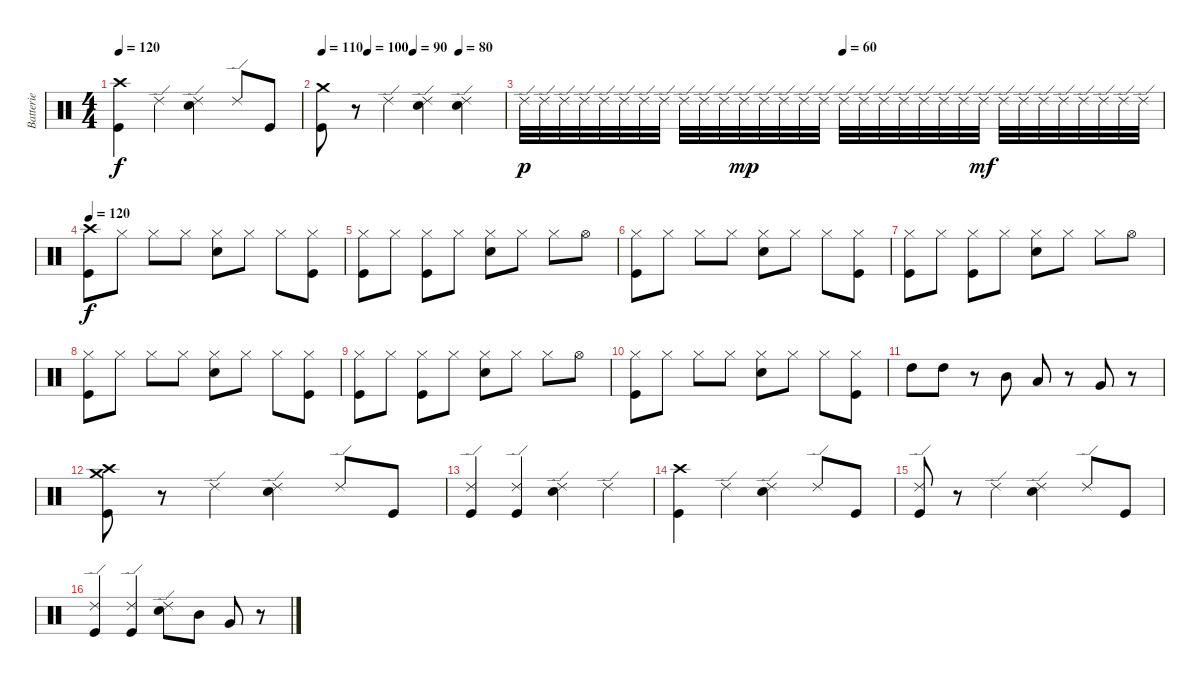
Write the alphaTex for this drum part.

\track ("Batterie" "Batterie") {instrument percussion}
\staff {score}
\articulation defaults
\ts (4 4)
\tempo 120
\clef neutral
\ks c
("Crash high (hit)" "Kick (hit)").4{dy f} "Ride (edge) 2".4 ("Ride (edge) 2" "Snare (hit) 2").4 "Ride (edge) 2".8 "Kick (hit)".8 |
\tempo 110
\tempo (100 0.25)
\tempo (90 0.5)
\tempo (80 0.75)
("Crash medium (hit)" "Kick (hit)").8 r.8 "Ride (edge) 2".4 ("Snare (hit) 2" "Ride (edge) 2").4 ("Snare (hit) 2" "Ride (edge) 2").4 |
\tempo (60 0.5)
"Ride (edge) 2".32{dy p} "Ride (edge) 2".32 "Ride (edge) 2".32 "Ride (edge) 2".32 "Ride (edge) 2".32 "Ride (edge) 2".32 "Ride (edge) 2".32 "Ride (edge) 2".32 "Ride (edge) 2".32 "Ride (edge) 2".32 "Ride (edge) 2".32 "Ride (edge) 2".32{dy mp} "Ride (edge) 2".32 "Ride (edge) 2".32 "Ride (edge) 2".32 "Ride (edge) 2".32 "Ride (edge) 2".32 "Ride (edge) 2".32 "Ride (edge) 2".32 "Ride (edge) 2".32 "Ride (edge) 2".32 "Ride (edge) 2".32 "Ride (edge) 2".32 "Ride (edge) 2".32{dy mf} "Ride (edge) 2".32 "Ride (edge) 2".32 "Ride (edge) 2".32 "Ride (edge) 2".32 "Ride (edge) 2".32 "Ride (edge) 2".32 "Ride (edge) 2".32 "Ride (edge) 2".32 |
\tempo 120
("Crash high (hit)" "Kick (hit)").8{dy f} "Hi-Hat (closed)".8 "Hi-Hat (closed)".8 "Hi-Hat (closed)".8 ("Snare (hit) 2" "Hi-Hat (closed)").8 "Hi-Hat (closed)".8 "Hi-Hat (closed)".8 ("Kick (hit)" "Hi-Hat (closed)").8 |
("Hi-Hat (closed)" "Kick (hit)").8 "Hi-Hat (closed)".8 ("Kick (hit)" "Hi-Hat (closed)").8 "Hi-Hat (closed)".8 ("Snare (hit) 2" "Hi-Hat (closed)").8 "Hi-Hat (closed)".8 "Hi-Hat (closed)".8 "Hi-Hat (open)".8 |
("Kick (hit)" "Hi-Hat (closed)").8 "Hi-Hat (closed)".8 "Hi-Hat (closed)".8 "Hi-Hat (closed)".8 ("Snare (hit) 2" "Hi-Hat (closed)").8 "Hi-Hat (closed)".8 "Hi-Hat (closed)".8 ("Kick (hit)" "Hi-Hat (closed)").8 |
("Kick (hit)" "Hi-Hat (closed)").8 "Hi-Hat (closed)".8 ("Kick (hit)" "Hi-Hat (closed)").8 "Hi-Hat (closed)".8 ("Snare (hit) 2" "Hi-Hat (closed)").8 "Hi-Hat (closed)".8 "Hi-Hat (closed)".8 "Hi-Hat (open)".8 |
("Kick (hit)" "Hi-Hat (closed)").8 "Hi-Hat (closed)".8 "Hi-Hat (closed)".8 "Hi-Hat (closed)".8 ("Snare (hit) 2" "Hi-Hat (closed)").8 "Hi-Hat (closed)".8 "Hi-Hat (closed)".8 ("Kick (hit)" "Hi-Hat (closed)").8 |
("Kick (hit)" "Hi-Hat (closed)").8 "Hi-Hat (closed)".8 ("Kick (hit)" "Hi-Hat (closed)").8 "Hi-Hat (closed)".8 ("Snare (hit) 2" "Hi-Hat (closed)").8 "Hi-Hat (closed)".8 "Hi-Hat (closed)".8 "Hi-Hat (open)".8 |
("Hi-Hat (closed)" "Kick (hit)").8 "Hi-Hat (closed)".8 "Hi-Hat (closed)".8 "Hi-Hat (closed)".8 ("Snare (hit) 2" "Hi-Hat (closed)").8 "Hi-Hat (closed)".8 "Hi-Hat (closed)".8 ("Kick (hit)" "Hi-Hat (closed)").8 |
"High Tom (hit)".8 "High Tom (hit)".8 r.8 "Mid Tom (hit)".8 "Low Tom (hit)".8 r.8 "Very Low Tom (hit)".8 r.8 |
("Crash high (hit)" "Crash medium (hit)" "Kick (hit)").8 r.8 "Ride (edge) 2".4 ("Snare (hit) 2" "Ride (edge) 2").4 "Ride (edge) 2".8 "Kick (hit)".8 |
("Kick (hit)" "Ride (edge) 2").4 ("Ride (edge) 2" "Kick (hit)").4 ("Snare (hit) 2" "Ride (edge) 2").4 "Ride (edge) 2".4 |
("Crash high (hit)" "Kick (hit)").4 "Ride (edge) 2".4 ("Snare (hit) 2" "Ride (edge) 2").4 "Ride (edge) 2".8 "Kick (hit)".8 |
("Ride (edge) 2" "Kick (hit)").8 r.8 "Ride (edge) 2".4 ("Ride (edge) 2" "Snare (hit) 2").4 "Ride (edge) 2".8 "Kick (hit)".8 |
("Ride (edge) 2" "Kick (hit)").4 ("Kick (hit)" "Ride (edge) 2").4 ("Snare (hit) 2" "Ride (edge) 2").8 "Mid Tom (hit)".8 "Very Low Tom (hit)".8 r.8
